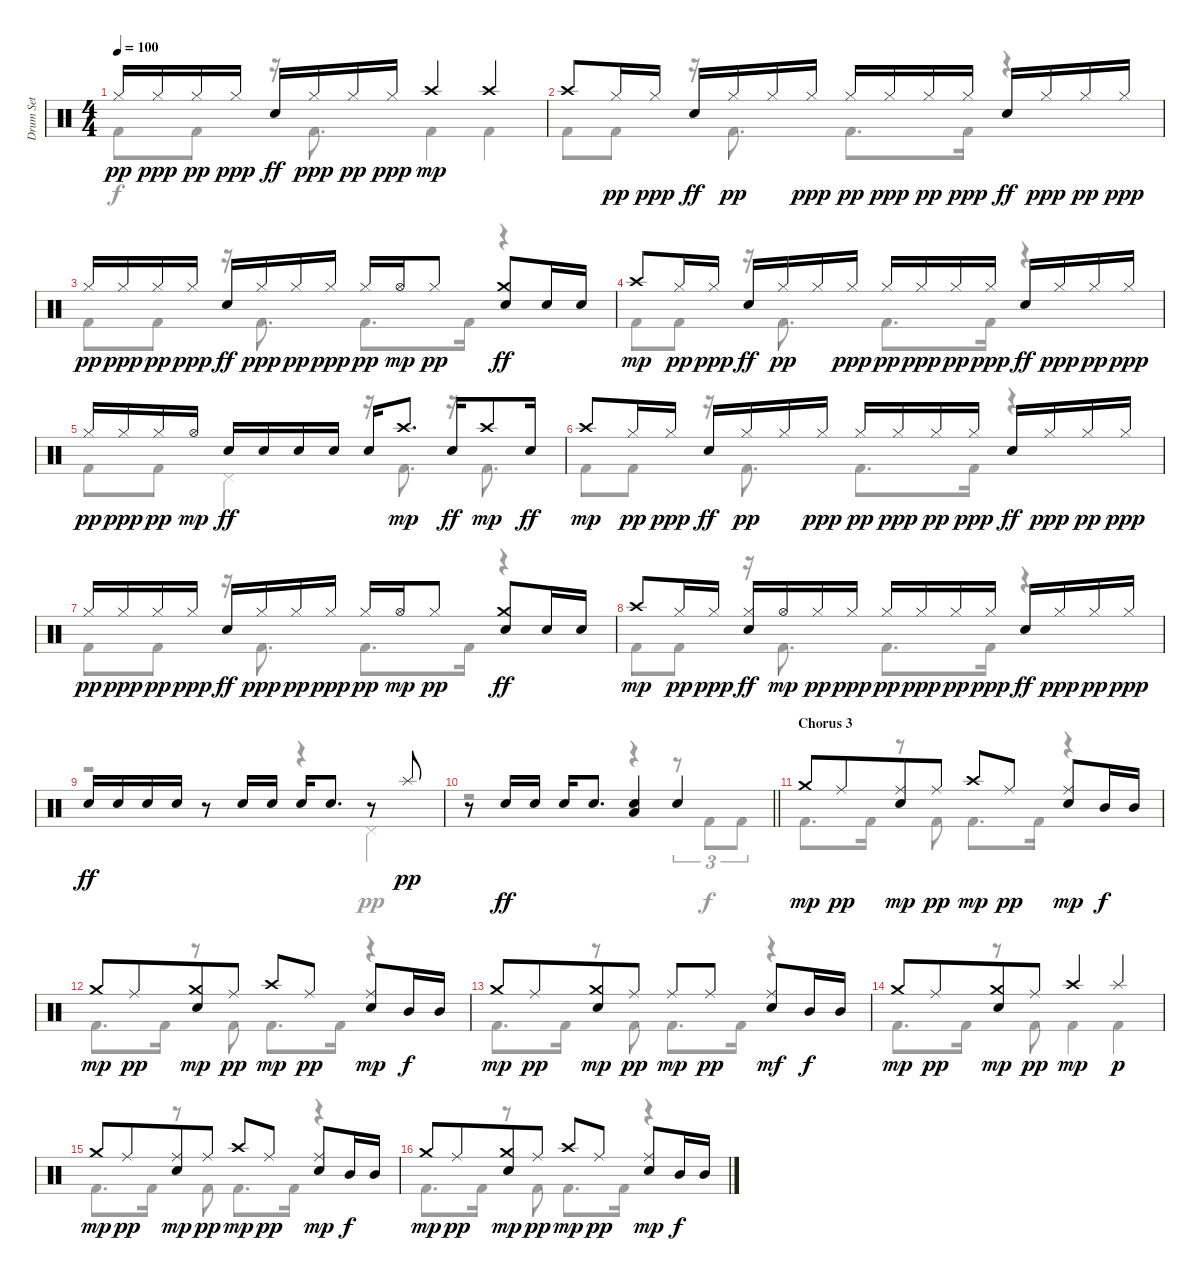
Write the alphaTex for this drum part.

\track ("Drum Set" "Drum Set") {instrument percussion}
\staff {score}
\articulation defaults
\voice
\ts (4 4)
\tempo 100
\clef neutral
\ks c "Hi-Hat (closed)".16{dy pp} "Hi-Hat (closed)".16{dy ppp} "Hi-Hat (closed)".16{dy pp} "Hi-Hat (closed)".16{dy ppp} "Electric Snare (hit)".16{dy ff} "Hi-Hat (closed)".16{dy ppp} "Hi-Hat (closed)".16{dy pp} "Hi-Hat (closed)".16{dy ppp} "Crash high (hit)".4{dy mp} "Crash high (hit)".4
|
"Crash high (hit)".8 "Hi-Hat (closed)".16{dy pp} "Hi-Hat (closed)".16{dy ppp} "Electric Snare (hit)".16{dy ff} "Hi-Hat (closed)".16{dy pp} "Hi-Hat (closed)".16 "Hi-Hat (closed)".16{dy ppp} "Hi-Hat (closed)".16{dy pp} "Hi-Hat (closed)".16{dy ppp} "Hi-Hat (closed)".16{dy pp} "Hi-Hat (closed)".16{dy ppp} "Electric Snare (hit)".16{dy ff} "Hi-Hat (closed)".16{dy ppp} "Hi-Hat (closed)".16{dy pp} "Hi-Hat (closed)".16{dy ppp} |
"Hi-Hat (closed)".16{dy pp} "Hi-Hat (closed)".16{dy ppp} "Hi-Hat (closed)".16{dy pp} "Hi-Hat (closed)".16{dy ppp} "Electric Snare (hit)".16{dy ff} "Hi-Hat (closed)".16{dy ppp} "Hi-Hat (closed)".16{dy pp} "Hi-Hat (closed)".16{dy ppp} "Hi-Hat (closed)".16{dy pp} "Hi-Hat (open)".16{dy mp} "Hi-Hat (closed)".8{dy pp} ("Crash medium (hit)" "Electric Snare (hit)").8{dy ff} "Electric Snare (hit)".16 "Electric Snare (hit)".16 |
"Crash high (hit)".8{dy mp} "Hi-Hat (closed)".16{dy pp} "Hi-Hat (closed)".16{dy ppp} "Electric Snare (hit)".16{dy ff} "Hi-Hat (closed)".16{dy pp} "Hi-Hat (closed)".16 "Hi-Hat (closed)".16{dy ppp} "Hi-Hat (closed)".16{dy pp} "Hi-Hat (closed)".16{dy ppp} "Hi-Hat (closed)".16{dy pp} "Hi-Hat (closed)".16{dy ppp} "Electric Snare (hit)".16{dy ff} "Hi-Hat (closed)".16{dy ppp} "Hi-Hat (closed)".16{dy pp} "Hi-Hat (closed)".16{dy ppp} |
"Hi-Hat (closed)".16{dy pp} "Hi-Hat (closed)".16{dy ppp} "Hi-Hat (closed)".16{dy pp} "Hi-Hat (open)".16{dy mp} "Electric Snare (hit)".16{dy ff} "Electric Snare (hit)".16 "Electric Snare (hit)".16 "Electric Snare (hit)".16 "Electric Snare (hit)".16 "Crash high (hit)".8{d dy mp} "Electric Snare (hit)".16{dy ff} "Crash high (hit)".8{dy mp} "Electric Snare (hit)".16{dy ff} |
"Crash high (hit)".8{dy mp} "Hi-Hat (closed)".16{dy pp} "Hi-Hat (closed)".16{dy ppp} "Electric Snare (hit)".16{dy ff} "Hi-Hat (closed)".16{dy pp} "Hi-Hat (closed)".16 "Hi-Hat (closed)".16{dy ppp} "Hi-Hat (closed)".16{dy pp} "Hi-Hat (closed)".16{dy ppp} "Hi-Hat (closed)".16{dy pp} "Hi-Hat (closed)".16{dy ppp} "Electric Snare (hit)".16{dy ff} "Hi-Hat (closed)".16{dy ppp} "Hi-Hat (closed)".16{dy pp} "Hi-Hat (closed)".16{dy ppp} |
"Hi-Hat (closed)".16{dy pp} "Hi-Hat (closed)".16{dy ppp} "Hi-Hat (closed)".16{dy pp} "Hi-Hat (closed)".16{dy ppp} "Electric Snare (hit)".16{dy ff} "Hi-Hat (closed)".16{dy ppp} "Hi-Hat (closed)".16{dy pp} "Hi-Hat (closed)".16{dy ppp} "Hi-Hat (closed)".16{dy pp} "Hi-Hat (open)".16{dy mp} "Hi-Hat (closed)".8{dy pp} ("Crash medium (hit)" "Electric Snare (hit)").8{dy ff} "Electric Snare (hit)".16 "Electric Snare (hit)".16 |
"Crash high (hit)".8{dy mp} "Hi-Hat (closed)".16{dy pp} "Hi-Hat (closed)".16{dy ppp} ("Hi-Hat (closed)" "Electric Snare (hit)").16{dy ff} "Hi-Hat (open)".16{dy mp} "Hi-Hat (closed)".16{dy pp} "Hi-Hat (closed)".16{dy ppp} "Hi-Hat (closed)".16{dy pp} "Hi-Hat (closed)".16{dy ppp} "Hi-Hat (closed)".16{dy pp} "Hi-Hat (closed)".16{dy ppp} "Electric Snare (hit)".16{dy ff} "Hi-Hat (closed)".16{dy ppp} "Hi-Hat (closed)".16{dy pp} "Hi-Hat (closed)".16{dy ppp} |
"Electric Snare (hit)".16{dy ff} "Electric Snare (hit)".16 "Electric Snare (hit)".16 "Electric Snare (hit)".16 r.8 "Electric Snare (hit)".16 "Electric Snare (hit)".16 "Electric Snare (hit)".16 "Electric Snare (hit)".8{d} r.8 "Splash (hit)".8{dy pp} |
\barLineRight lightlight
r.8 "Electric Snare (hit)".16{dy ff} "Electric Snare (hit)".16 "Electric Snare (hit)".16 "Electric Snare (hit)".8{d} ("Electric Snare (hit)" "Low Tom (hit)").4 "Electric Snare (hit)".4 |
\section ("" "Chorus 3")
"Crash medium (hit)".8{dy mp} "Ride (middle)".8{dy pp beam merge} ("Electric Snare (hit)" "Ride (middle)").8{dy mp} "Ride (middle)".8{dy pp} "Crash high (hit)".8{dy mp} "Ride (middle)".8{dy pp} ("Electric Snare (hit)" "Ride (middle)").8{dy mp} "Mid Tom (hit)".16{dy f} "Mid Tom (hit)".16 |
"Crash medium (hit)".8{dy mp} "Ride (middle)".8{dy pp beam merge} ("Electric Snare (hit)" "Crash medium (hit)").8{dy mp} "Ride (middle)".8{dy pp} "Crash high (hit)".8{dy mp} "Ride (middle)".8{dy pp} ("Electric Snare (hit)" "Ride (middle)").8{dy mp} "Mid Tom (hit)".16{dy f} "Mid Tom (hit)".16 |
"Crash medium (hit)".8{dy mp} "Ride (middle)".8{dy pp beam merge} ("Electric Snare (hit)" "Crash medium (hit)").8{dy mp} "Ride (middle)".8{dy pp} "Ride (middle)".8{dy mp} "Ride (middle)".8{dy pp} ("Electric Snare (hit)" "Ride (middle)").8{dy mf} "Mid Tom (hit)".16{dy f} "Mid Tom (hit)".16 |
"Crash medium (hit)".8{dy mp} "Ride (middle)".8{dy pp beam merge} ("Electric Snare (hit)" "Crash medium (hit)").8{dy mp} "Ride (middle)".8{dy pp} "Crash high (hit)".4{dy mp} "Splash (hit)".4{dy p} |
"Crash medium (hit)".8{dy mp} "Ride (middle)".8{dy pp beam merge} ("Electric Snare (hit)" "Ride (middle)").8{dy mp} "Ride (middle)".8{dy pp} "Crash high (hit)".8{dy mp} "Ride (middle)".8{dy pp} ("Electric Snare (hit)" "Ride (middle)").8{dy mp} "Mid Tom (hit)".16{dy f} "Mid Tom (hit)".16 |
"Crash medium (hit)".8{dy mp} "Ride (middle)".8{dy pp beam merge} ("Electric Snare (hit)" "Crash medium (hit)").8{dy mp} "Ride (middle)".8{dy pp} "Crash high (hit)".8{dy mp} "Ride (middle)".8{dy pp} ("Electric Snare (hit)" "Ride (middle)").8{dy mp} "Mid Tom (hit)".16{dy f} "Mid Tom (hit)".16
\voice
\clef neutral
\ottava regular
\simile none
\ks c "Kick (hit) 2".8{dy f} "Kick (hit) 2".8
r.16 "Kick (hit) 2".8{d} "Kick (hit) 2".4 "Kick (hit) 2".4 |
"Kick (hit) 2".8 "Kick (hit) 2".8 r.16 "Kick (hit) 2".8{d} "Kick (hit) 2".8{d} "Kick (hit) 2".16 r.4 |
"Kick (hit) 2".8 "Kick (hit) 2".8 r.16 "Kick (hit) 2".8{d} "Kick (hit) 2".8{d} "Kick (hit) 2".16 r.4 |
"Kick (hit) 2".8 "Kick (hit) 2".8 r.16 "Kick (hit) 2".8{d} "Kick (hit) 2".8{d} "Kick (hit) 2".16 r.4 |
"Kick (hit) 2".8 "Kick (hit) 2".8 "Pedal Hi-Hat (hit)".4 r.16 "Kick (hit) 2".8{d} r.16 "Kick (hit) 2".8{d} |
"Kick (hit) 2".8 "Kick (hit) 2".8 r.16 "Kick (hit) 2".8{d} "Kick (hit) 2".8{d} "Kick (hit) 2".16 r.4 |
"Kick (hit) 2".8 "Kick (hit) 2".8 r.16 "Kick (hit) 2".8{d} "Kick (hit) 2".8{d} "Kick (hit) 2".16 r.4 |
"Kick (hit) 2".8 "Kick (hit) 2".8 r.16 "Kick (hit) 2".8{d} "Kick (hit) 2".8{d} "Kick (hit) 2".16 r.4 |
r.2 r.4 "Pedal Hi-Hat (hit)".4{dy pp} |
\barLineRight lightlight
r.2 r.4 r.8{tu (3 2)} "Kick (hit) 2".8{tu (3 2) dy f} "Kick (hit) 2".8{tu (3 2)} |
"Kick (hit) 2".8{d} "Kick (hit) 2".16 r.8 "Kick (hit) 2".8 "Kick (hit) 2".8{d} "Kick (hit) 2".16 r.4 |
"Kick (hit) 2".8{d} "Kick (hit) 2".16 r.8 "Kick (hit) 2".8 "Kick (hit) 2".8{d} "Kick (hit) 2".16 r.4 |
"Kick (hit) 2".8{d} "Kick (hit) 2".16 r.8 "Kick (hit) 2".8 "Kick (hit) 2".8{d} "Kick (hit) 2".16 r.4 |
"Kick (hit) 2".8{d} "Kick (hit) 2".16 r.8 "Kick (hit) 2".8 "Kick (hit) 2".4 "Kick (hit) 2".4 |
"Kick (hit) 2".8{d} "Kick (hit) 2".16 r.8 "Kick (hit) 2".8 "Kick (hit) 2".8{d} "Kick (hit) 2".16 r.4 |
"Kick (hit) 2".8{d} "Kick (hit) 2".16 r.8 "Kick (hit) 2".8 "Kick (hit) 2".8{d} "Kick (hit) 2".16 r.4
